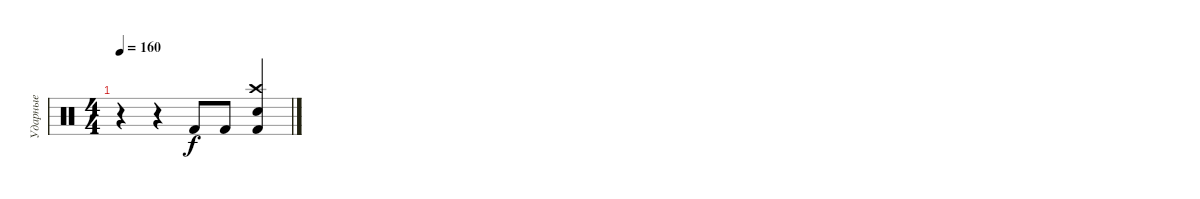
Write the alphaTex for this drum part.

\track ("Ударные" "Ударные") {instrument percussion}
\staff {score}
\articulation defaults
\ts (4 4)
\tempo 160
\clef neutral
\ks c
r.4{dy f} r.4 "Kick (hit) 2".8 "Kick (hit) 2".8 ("Crash high (hit)" "Snare (hit) 2" "Kick (hit) 2").4
